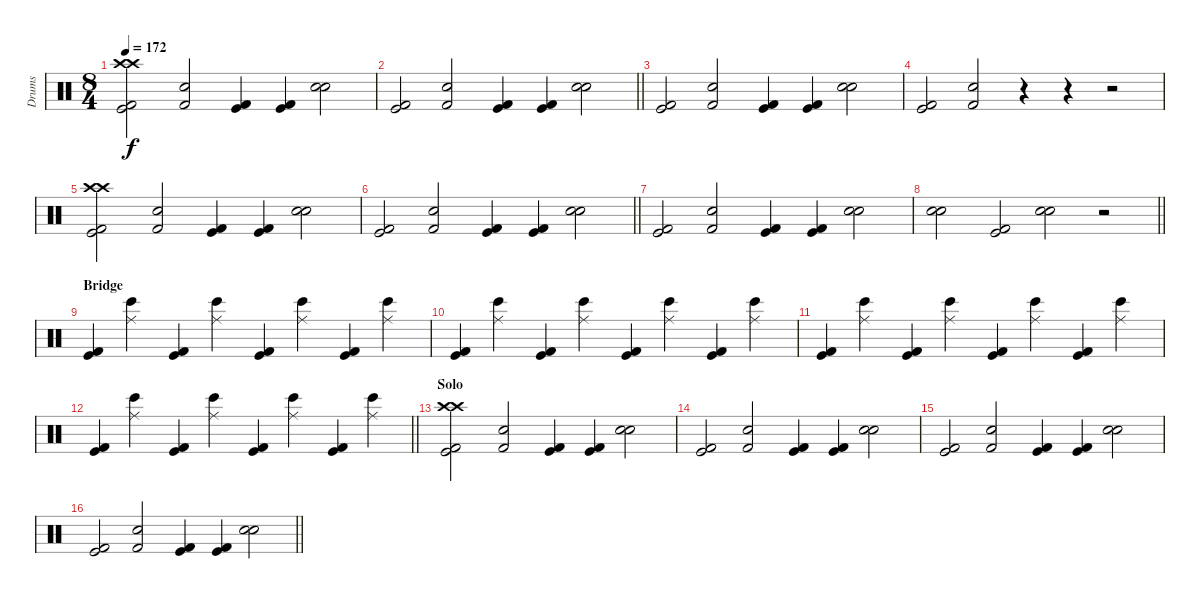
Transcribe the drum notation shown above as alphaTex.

\track ("Drums" "Drums") {instrument percussion}
\staff {score}
\articulation defaults
\ts (8 4)
\tempo 172
\clef neutral
\ks c
("Crash high (hit)" "Kick (hit) 2" "Kick (hit)" "Crash high (hit)").2{dy f} ("Snare (hit) 2" "Kick (hit) 2").2 ("Kick (hit) 2" "Kick (hit)").4 ("Kick (hit) 2" "Kick (hit)").4 ("Snare (hit) 2" "Electric Snare (hit)").2 |
\barLineRight lightlight
("Kick (hit) 2" "Kick (hit)").2 ("Snare (hit) 2" "Kick (hit) 2").2 ("Kick (hit) 2" "Kick (hit)").4 ("Kick (hit) 2" "Kick (hit)").4 ("Snare (hit) 2" "Electric Snare (hit)").2 |
("Kick (hit) 2" "Kick (hit)").2 ("Snare (hit) 2" "Kick (hit) 2").2 ("Kick (hit) 2" "Kick (hit)").4 ("Kick (hit) 2" "Kick (hit)").4 ("Snare (hit) 2" "Electric Snare (hit)").2 |
("Kick (hit) 2" "Kick (hit)").2 ("Snare (hit) 2" "Kick (hit) 2").2 r.4 r.4 r.2 |
("Crash high (hit)" "Kick (hit) 2" "Kick (hit)" "Crash high (hit)").2 ("Snare (hit) 2" "Kick (hit) 2").2 ("Kick (hit) 2" "Kick (hit)").4 ("Kick (hit) 2" "Kick (hit)").4 ("Snare (hit) 2" "Electric Snare (hit)").2 |
\barLineRight lightlight
("Kick (hit) 2" "Kick (hit)").2 ("Snare (hit) 2" "Kick (hit) 2").2 ("Kick (hit) 2" "Kick (hit)").4 ("Kick (hit) 2" "Kick (hit)").4 ("Snare (hit) 2" "Electric Snare (hit)").2 |
("Kick (hit) 2" "Kick (hit)").2 ("Snare (hit) 2" "Kick (hit) 2").2 ("Kick (hit) 2" "Kick (hit)").4 ("Kick (hit) 2" "Kick (hit)").4 ("Snare (hit) 2" "Electric Snare (hit)").2 |
\barLineRight lightlight
("Snare (hit) 2" "Snare (hit) 2").2 ("Kick (hit) 2" "Kick (hit)").2 ("Snare (hit) 2" "Electric Snare (hit)").2 r.2 |
\section ("" "Bridge")
("Kick (hit) 2" "Kick (hit)").4 ("Ride (middle)" "Bongo High (hit)").4 ("Kick (hit) 2" "Kick (hit)").4 ("Ride (middle)" "Bongo High (hit)").4 ("Kick (hit) 2" "Kick (hit)").4 ("Ride (middle)" "Bongo High (hit)").4 ("Kick (hit) 2" "Kick (hit)").4 ("Ride (middle)" "Bongo High (hit)").4 |
("Kick (hit) 2" "Kick (hit)").4 ("Ride (middle)" "Bongo High (hit)").4 ("Kick (hit) 2" "Kick (hit)").4 ("Ride (middle)" "Bongo High (hit)").4 ("Kick (hit) 2" "Kick (hit)").4 ("Ride (middle)" "Bongo High (hit)").4 ("Kick (hit) 2" "Kick (hit)").4 ("Ride (middle)" "Bongo High (hit)").4 |
("Kick (hit) 2" "Kick (hit)").4 ("Ride (middle)" "Bongo High (hit)").4 ("Kick (hit) 2" "Kick (hit)").4 ("Ride (middle)" "Bongo High (hit)").4 ("Kick (hit) 2" "Kick (hit)").4 ("Ride (middle)" "Bongo High (hit)").4 ("Kick (hit) 2" "Kick (hit)").4 ("Ride (middle)" "Bongo High (hit)").4 |
\barLineRight lightlight
("Kick (hit) 2" "Kick (hit)").4 ("Ride (middle)" "Bongo High (hit)").4 ("Kick (hit) 2" "Kick (hit)").4 ("Ride (middle)" "Bongo High (hit)").4 ("Kick (hit) 2" "Kick (hit)").4 ("Ride (middle)" "Bongo High (hit)").4 ("Kick (hit) 2" "Kick (hit)").4 ("Ride (middle)" "Bongo High (hit)").4 |
\section ("" "Solo")
("Crash high (hit)" "Kick (hit) 2" "Kick (hit)" "Crash high (hit)").2 ("Snare (hit) 2" "Kick (hit) 2").2 ("Kick (hit) 2" "Kick (hit)").4 ("Kick (hit) 2" "Kick (hit)").4 ("Snare (hit) 2" "Electric Snare (hit)").2 |
("Kick (hit) 2" "Kick (hit)").2 ("Snare (hit) 2" "Kick (hit) 2").2 ("Kick (hit) 2" "Kick (hit)").4 ("Kick (hit) 2" "Kick (hit)").4 ("Snare (hit) 2" "Electric Snare (hit)").2 |
("Kick (hit) 2" "Kick (hit)").2 ("Snare (hit) 2" "Kick (hit) 2").2 ("Kick (hit) 2" "Kick (hit)").4 ("Kick (hit) 2" "Kick (hit)").4 ("Snare (hit) 2" "Electric Snare (hit)").2 |
\barLineRight lightlight
("Kick (hit) 2" "Kick (hit)").2 ("Snare (hit) 2" "Kick (hit) 2").2 ("Kick (hit) 2" "Kick (hit)").4 ("Kick (hit) 2" "Kick (hit)").4 ("Snare (hit) 2" "Electric Snare (hit)").2
